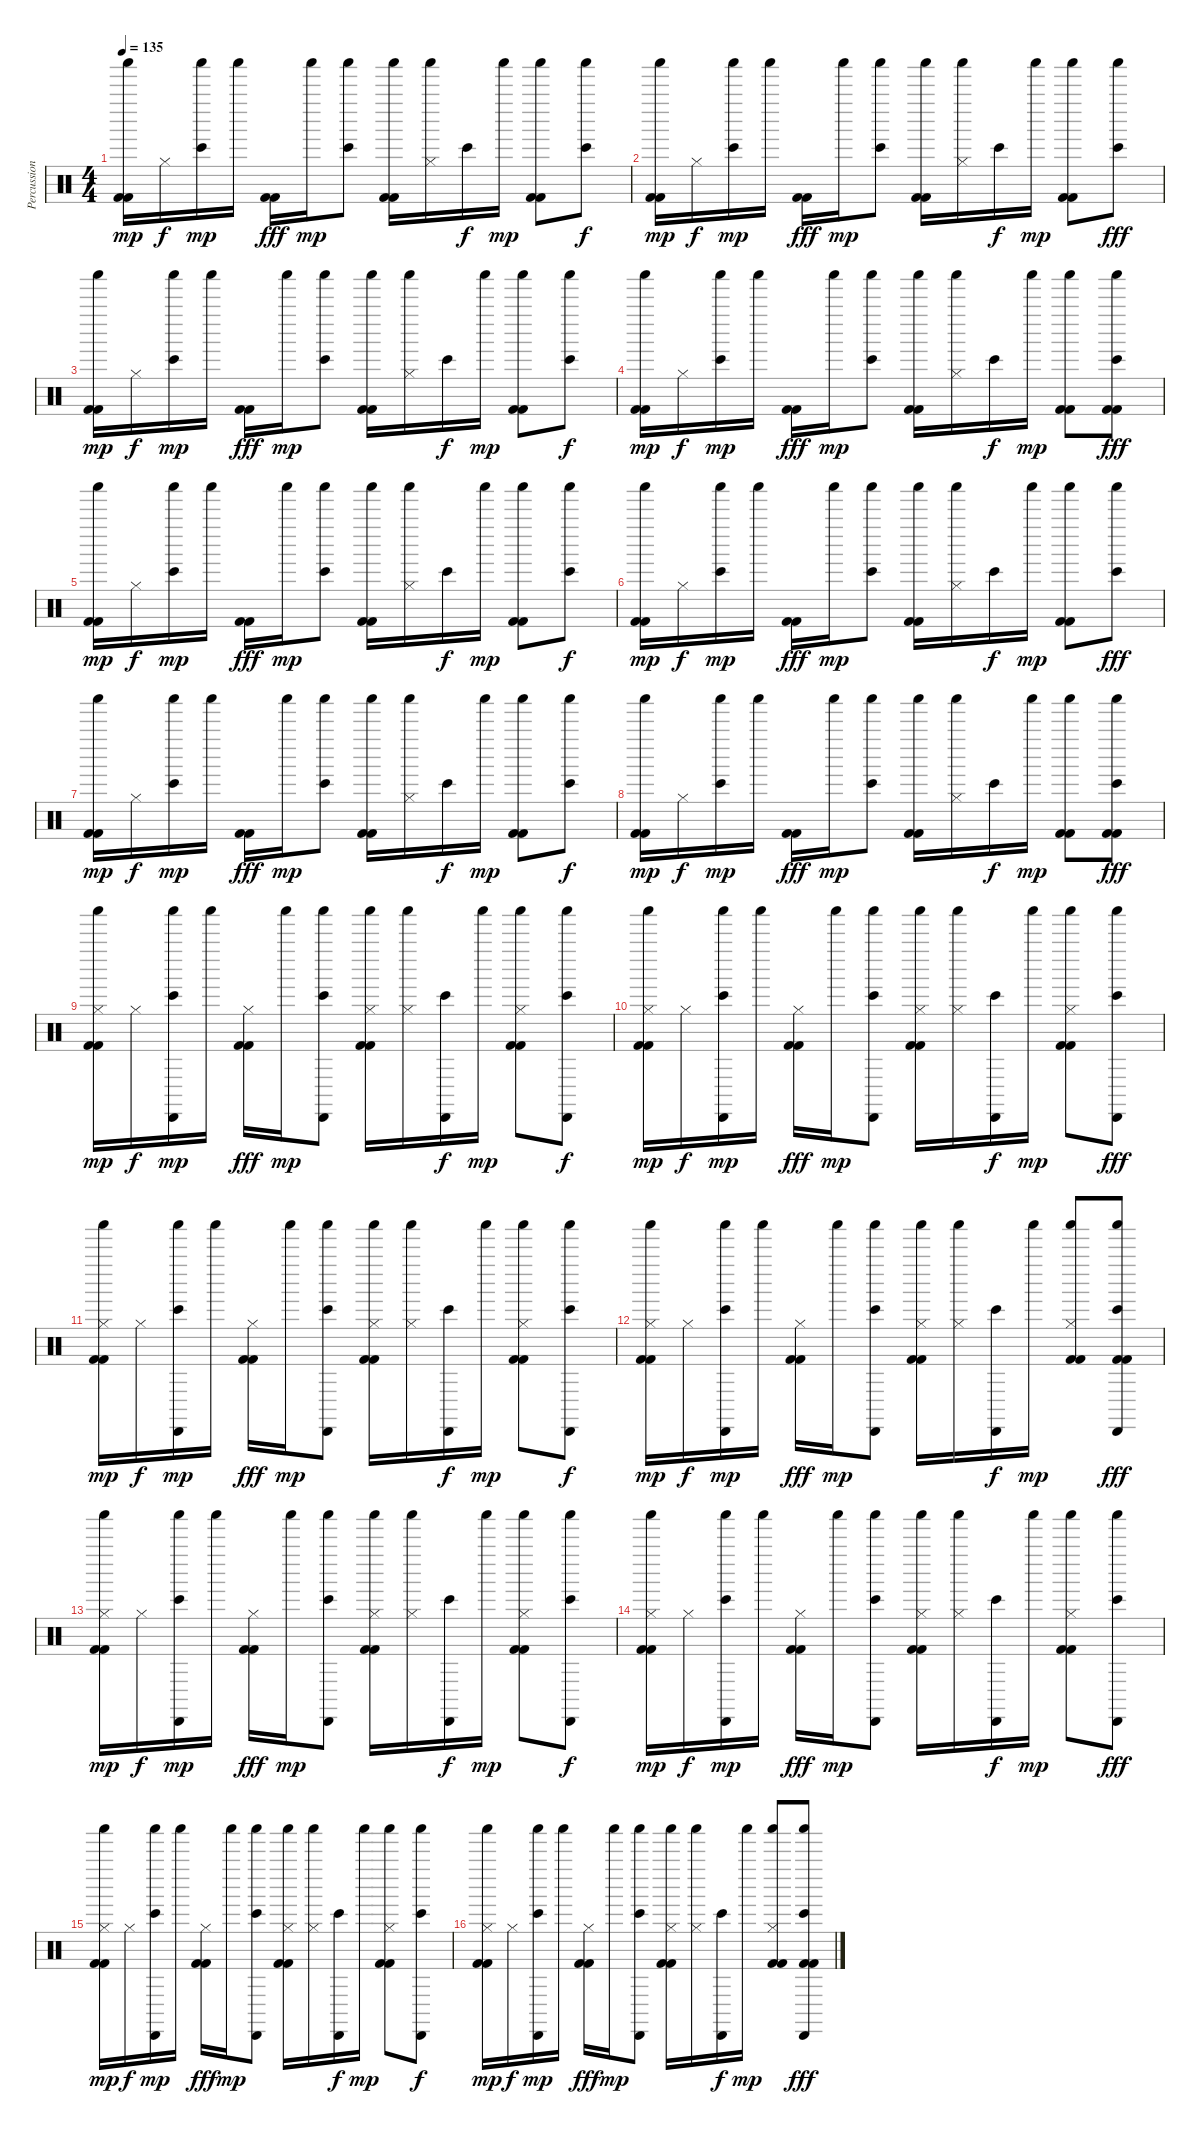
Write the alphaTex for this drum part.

\track ("Percussion" "Percussion") {instrument percussion}
\staff {score}
\articulation defaults
\ts (4 4)
\tempo 135
\clef neutral
\ks c
("Kick (hit) 2" "Kick (hit) 2" "Shaker (hit)").16{dy mp} "Hi-Hat (closed)".16{dy f} ("Bongo High (hit)" "Shaker (hit)").16{dy mp} "Shaker (hit)".16 ("Kick (hit) 2" "Kick (hit) 2").16{dy fff} "Shaker (hit)".16{dy mp} ("Bongo High (hit)" "Shaker (hit)").8 ("Kick (hit) 2" "Kick (hit) 2" "Shaker (hit)").16 ("Hi-Hat (closed)" "Shaker (hit)").16 "Bongo High (hit)".16{dy f} "Shaker (hit)".16{dy mp} ("Kick (hit) 2" "Kick (hit) 2" "Shaker (hit)").8 ("Bongo High (hit)" "Shaker (hit)").8{dy f} |
("Kick (hit) 2" "Kick (hit) 2" "Shaker (hit)").16{dy mp} "Hi-Hat (closed)".16{dy f} ("Bongo High (hit)" "Shaker (hit)").16{dy mp} "Shaker (hit)".16 ("Kick (hit) 2" "Kick (hit) 2").16{dy fff} "Shaker (hit)".16{dy mp} ("Bongo High (hit)" "Shaker (hit)").8 ("Kick (hit) 2" "Kick (hit) 2" "Shaker (hit)").16 ("Hi-Hat (closed)" "Shaker (hit)").16 "Bongo High (hit)".16{dy f} "Shaker (hit)".16{dy mp} ("Kick (hit) 2" "Kick (hit) 2" "Shaker (hit)").8 ("Bongo High (hit)" "Shaker (hit)").8{dy fff} |
("Kick (hit) 2" "Kick (hit) 2" "Shaker (hit)").16{dy mp} "Hi-Hat (closed)".16{dy f} ("Bongo High (hit)" "Shaker (hit)").16{dy mp} "Shaker (hit)".16 ("Kick (hit) 2" "Kick (hit) 2").16{dy fff} "Shaker (hit)".16{dy mp} ("Bongo High (hit)" "Shaker (hit)").8 ("Kick (hit) 2" "Kick (hit) 2" "Shaker (hit)").16 ("Hi-Hat (closed)" "Shaker (hit)").16 "Bongo High (hit)".16{dy f} "Shaker (hit)".16{dy mp} ("Kick (hit) 2" "Kick (hit) 2" "Shaker (hit)").8 ("Bongo High (hit)" "Shaker (hit)").8{dy f} |
("Kick (hit) 2" "Kick (hit) 2" "Shaker (hit)").16{dy mp} "Hi-Hat (closed)".16{dy f} ("Bongo High (hit)" "Shaker (hit)").16{dy mp} "Shaker (hit)".16 ("Kick (hit) 2" "Kick (hit) 2").16{dy fff} "Shaker (hit)".16{dy mp} ("Bongo High (hit)" "Shaker (hit)").8 ("Kick (hit) 2" "Kick (hit) 2" "Shaker (hit)").16 ("Hi-Hat (closed)" "Shaker (hit)").16 "Bongo High (hit)".16{dy f} "Shaker (hit)".16{dy mp} ("Kick (hit) 2" "Kick (hit) 2" "Shaker (hit)").8 ("Bongo High (hit)" "Kick (hit) 2" "Kick (hit) 2" "Shaker (hit)").8{dy fff} |
("Kick (hit) 2" "Kick (hit) 2" "Shaker (hit)").16{dy mp} "Hi-Hat (closed)".16{dy f} ("Bongo High (hit)" "Shaker (hit)").16{dy mp} "Shaker (hit)".16 ("Kick (hit) 2" "Kick (hit) 2").16{dy fff} "Shaker (hit)".16{dy mp} ("Bongo High (hit)" "Shaker (hit)").8 ("Kick (hit) 2" "Kick (hit) 2" "Shaker (hit)").16 ("Hi-Hat (closed)" "Shaker (hit)").16 "Bongo High (hit)".16{dy f} "Shaker (hit)".16{dy mp} ("Kick (hit) 2" "Kick (hit) 2" "Shaker (hit)").8 ("Bongo High (hit)" "Shaker (hit)").8{dy f} |
("Kick (hit) 2" "Kick (hit) 2" "Shaker (hit)").16{dy mp} "Hi-Hat (closed)".16{dy f} ("Bongo High (hit)" "Shaker (hit)").16{dy mp} "Shaker (hit)".16 ("Kick (hit) 2" "Kick (hit) 2").16{dy fff} "Shaker (hit)".16{dy mp} ("Bongo High (hit)" "Shaker (hit)").8 ("Kick (hit) 2" "Kick (hit) 2" "Shaker (hit)").16 ("Hi-Hat (closed)" "Shaker (hit)").16 "Bongo High (hit)".16{dy f} "Shaker (hit)".16{dy mp} ("Kick (hit) 2" "Kick (hit) 2" "Shaker (hit)").8 ("Bongo High (hit)" "Shaker (hit)").8{dy fff} |
("Kick (hit) 2" "Kick (hit) 2" "Shaker (hit)").16{dy mp} "Hi-Hat (closed)".16{dy f} ("Bongo High (hit)" "Shaker (hit)").16{dy mp} "Shaker (hit)".16 ("Kick (hit) 2" "Kick (hit) 2").16{dy fff} "Shaker (hit)".16{dy mp} ("Bongo High (hit)" "Shaker (hit)").8 ("Kick (hit) 2" "Kick (hit) 2" "Shaker (hit)").16 ("Hi-Hat (closed)" "Shaker (hit)").16 "Bongo High (hit)".16{dy f} "Shaker (hit)".16{dy mp} ("Kick (hit) 2" "Kick (hit) 2" "Shaker (hit)").8 ("Bongo High (hit)" "Shaker (hit)").8{dy f} |
("Kick (hit) 2" "Kick (hit) 2" "Shaker (hit)").16{dy mp} "Hi-Hat (closed)".16{dy f} ("Bongo High (hit)" "Shaker (hit)").16{dy mp} "Shaker (hit)".16 ("Kick (hit) 2" "Kick (hit) 2").16{dy fff} "Shaker (hit)".16{dy mp} ("Bongo High (hit)" "Shaker (hit)").8 ("Kick (hit) 2" "Kick (hit) 2" "Shaker (hit)").16 ("Hi-Hat (closed)" "Shaker (hit)").16 "Bongo High (hit)".16{dy f} "Shaker (hit)".16{dy mp} ("Kick (hit) 2" "Kick (hit) 2" "Shaker (hit)").8 ("Bongo High (hit)" "Kick (hit) 2" "Kick (hit) 2" "Shaker (hit)").8{dy fff} |
("Hi-Hat (closed)" "Kick (hit) 2" "Kick (hit) 2" "Shaker (hit)").16{dy mp} "Hi-Hat (closed)".16{dy f} ("Cabasa (hit)" "Bongo High (hit)" "Shaker (hit)").16{dy mp} "Shaker (hit)".16 ("Hi-Hat (closed)" "Kick (hit) 2" "Kick (hit) 2").16{dy fff} "Shaker (hit)".16{dy mp} ("Cabasa (hit)" "Bongo High (hit)" "Shaker (hit)").8 ("Hi-Hat (closed)" "Kick (hit) 2" "Kick (hit) 2" "Shaker (hit)").16 ("Hi-Hat (closed)" "Shaker (hit)").16 ("Cabasa (hit)" "Bongo High (hit)").16{dy f} "Shaker (hit)".16{dy mp} ("Hi-Hat (closed)" "Kick (hit) 2" "Kick (hit) 2" "Shaker (hit)").8 ("Cabasa (hit)" "Bongo High (hit)" "Shaker (hit)").8{dy f} |
("Hi-Hat (closed)" "Kick (hit) 2" "Kick (hit) 2" "Shaker (hit)").16{dy mp} "Hi-Hat (closed)".16{dy f} ("Cabasa (hit)" "Bongo High (hit)" "Shaker (hit)").16{dy mp} "Shaker (hit)".16 ("Hi-Hat (closed)" "Kick (hit) 2" "Kick (hit) 2").16{dy fff} "Shaker (hit)".16{dy mp} ("Cabasa (hit)" "Bongo High (hit)" "Shaker (hit)").8 ("Hi-Hat (closed)" "Kick (hit) 2" "Kick (hit) 2" "Shaker (hit)").16 ("Hi-Hat (closed)" "Shaker (hit)").16 ("Cabasa (hit)" "Bongo High (hit)").16{dy f} "Shaker (hit)".16{dy mp} ("Hi-Hat (closed)" "Kick (hit) 2" "Kick (hit) 2" "Shaker (hit)").8 ("Cabasa (hit)" "Bongo High (hit)" "Shaker (hit)").8{dy fff} |
("Hi-Hat (closed)" "Kick (hit) 2" "Kick (hit) 2" "Shaker (hit)").16{dy mp} "Hi-Hat (closed)".16{dy f} ("Cabasa (hit)" "Bongo High (hit)" "Shaker (hit)").16{dy mp} "Shaker (hit)".16 ("Hi-Hat (closed)" "Kick (hit) 2" "Kick (hit) 2").16{dy fff} "Shaker (hit)".16{dy mp} ("Cabasa (hit)" "Bongo High (hit)" "Shaker (hit)").8 ("Hi-Hat (closed)" "Kick (hit) 2" "Kick (hit) 2" "Shaker (hit)").16 ("Hi-Hat (closed)" "Shaker (hit)").16 ("Cabasa (hit)" "Bongo High (hit)").16{dy f} "Shaker (hit)".16{dy mp} ("Hi-Hat (closed)" "Kick (hit) 2" "Kick (hit) 2" "Shaker (hit)").8 ("Cabasa (hit)" "Bongo High (hit)" "Shaker (hit)").8{dy f} |
("Hi-Hat (closed)" "Kick (hit) 2" "Kick (hit) 2" "Shaker (hit)").16{dy mp} "Hi-Hat (closed)".16{dy f} ("Cabasa (hit)" "Bongo High (hit)" "Shaker (hit)").16{dy mp} "Shaker (hit)".16 ("Hi-Hat (closed)" "Kick (hit) 2" "Kick (hit) 2").16{dy fff} "Shaker (hit)".16{dy mp} ("Cabasa (hit)" "Bongo High (hit)" "Shaker (hit)").8 ("Hi-Hat (closed)" "Kick (hit) 2" "Kick (hit) 2" "Shaker (hit)").16 ("Hi-Hat (closed)" "Shaker (hit)").16 ("Cabasa (hit)" "Bongo High (hit)").16{dy f} "Shaker (hit)".16{dy mp} ("Hi-Hat (closed)" "Kick (hit) 2" "Kick (hit) 2" "Shaker (hit)").8 ("Cabasa (hit)" "Bongo High (hit)" "Kick (hit) 2" "Kick (hit) 2" "Shaker (hit)").8{dy fff} |
("Hi-Hat (closed)" "Kick (hit) 2" "Kick (hit) 2" "Shaker (hit)").16{dy mp} "Hi-Hat (closed)".16{dy f} ("Cabasa (hit)" "Bongo High (hit)" "Shaker (hit)").16{dy mp} "Shaker (hit)".16 ("Hi-Hat (closed)" "Kick (hit) 2" "Kick (hit) 2").16{dy fff} "Shaker (hit)".16{dy mp} ("Cabasa (hit)" "Bongo High (hit)" "Shaker (hit)").8 ("Hi-Hat (closed)" "Kick (hit) 2" "Kick (hit) 2" "Shaker (hit)").16 ("Hi-Hat (closed)" "Shaker (hit)").16 ("Cabasa (hit)" "Bongo High (hit)").16{dy f} "Shaker (hit)".16{dy mp} ("Hi-Hat (closed)" "Kick (hit) 2" "Kick (hit) 2" "Shaker (hit)").8 ("Cabasa (hit)" "Bongo High (hit)" "Shaker (hit)").8{dy f} |
("Hi-Hat (closed)" "Kick (hit) 2" "Kick (hit) 2" "Shaker (hit)").16{dy mp} "Hi-Hat (closed)".16{dy f} ("Cabasa (hit)" "Bongo High (hit)" "Shaker (hit)").16{dy mp} "Shaker (hit)".16 ("Hi-Hat (closed)" "Kick (hit) 2" "Kick (hit) 2").16{dy fff} "Shaker (hit)".16{dy mp} ("Cabasa (hit)" "Bongo High (hit)" "Shaker (hit)").8 ("Hi-Hat (closed)" "Kick (hit) 2" "Kick (hit) 2" "Shaker (hit)").16 ("Hi-Hat (closed)" "Shaker (hit)").16 ("Cabasa (hit)" "Bongo High (hit)").16{dy f} "Shaker (hit)".16{dy mp} ("Hi-Hat (closed)" "Kick (hit) 2" "Kick (hit) 2" "Shaker (hit)").8 ("Cabasa (hit)" "Bongo High (hit)" "Shaker (hit)").8{dy fff} |
("Hi-Hat (closed)" "Kick (hit) 2" "Kick (hit) 2" "Shaker (hit)").16{dy mp} "Hi-Hat (closed)".16{dy f} ("Cabasa (hit)" "Bongo High (hit)" "Shaker (hit)").16{dy mp} "Shaker (hit)".16 ("Hi-Hat (closed)" "Kick (hit) 2" "Kick (hit) 2").16{dy fff} "Shaker (hit)".16{dy mp} ("Cabasa (hit)" "Bongo High (hit)" "Shaker (hit)").8 ("Hi-Hat (closed)" "Kick (hit) 2" "Kick (hit) 2" "Shaker (hit)").16 ("Hi-Hat (closed)" "Shaker (hit)").16 ("Cabasa (hit)" "Bongo High (hit)").16{dy f} "Shaker (hit)".16{dy mp} ("Hi-Hat (closed)" "Kick (hit) 2" "Kick (hit) 2" "Shaker (hit)").8 ("Cabasa (hit)" "Bongo High (hit)" "Shaker (hit)").8{dy f} |
("Hi-Hat (closed)" "Kick (hit) 2" "Kick (hit) 2" "Shaker (hit)").16{dy mp} "Hi-Hat (closed)".16{dy f} ("Cabasa (hit)" "Bongo High (hit)" "Shaker (hit)").16{dy mp} "Shaker (hit)".16 ("Hi-Hat (closed)" "Kick (hit) 2" "Kick (hit) 2").16{dy fff} "Shaker (hit)".16{dy mp} ("Cabasa (hit)" "Bongo High (hit)" "Shaker (hit)").8 ("Hi-Hat (closed)" "Kick (hit) 2" "Kick (hit) 2" "Shaker (hit)").16 ("Hi-Hat (closed)" "Shaker (hit)").16 ("Cabasa (hit)" "Bongo High (hit)").16{dy f} "Shaker (hit)".16{dy mp} ("Hi-Hat (closed)" "Kick (hit) 2" "Kick (hit) 2" "Shaker (hit)").8 ("Cabasa (hit)" "Bongo High (hit)" "Kick (hit) 2" "Kick (hit) 2" "Shaker (hit)").8{dy fff}
